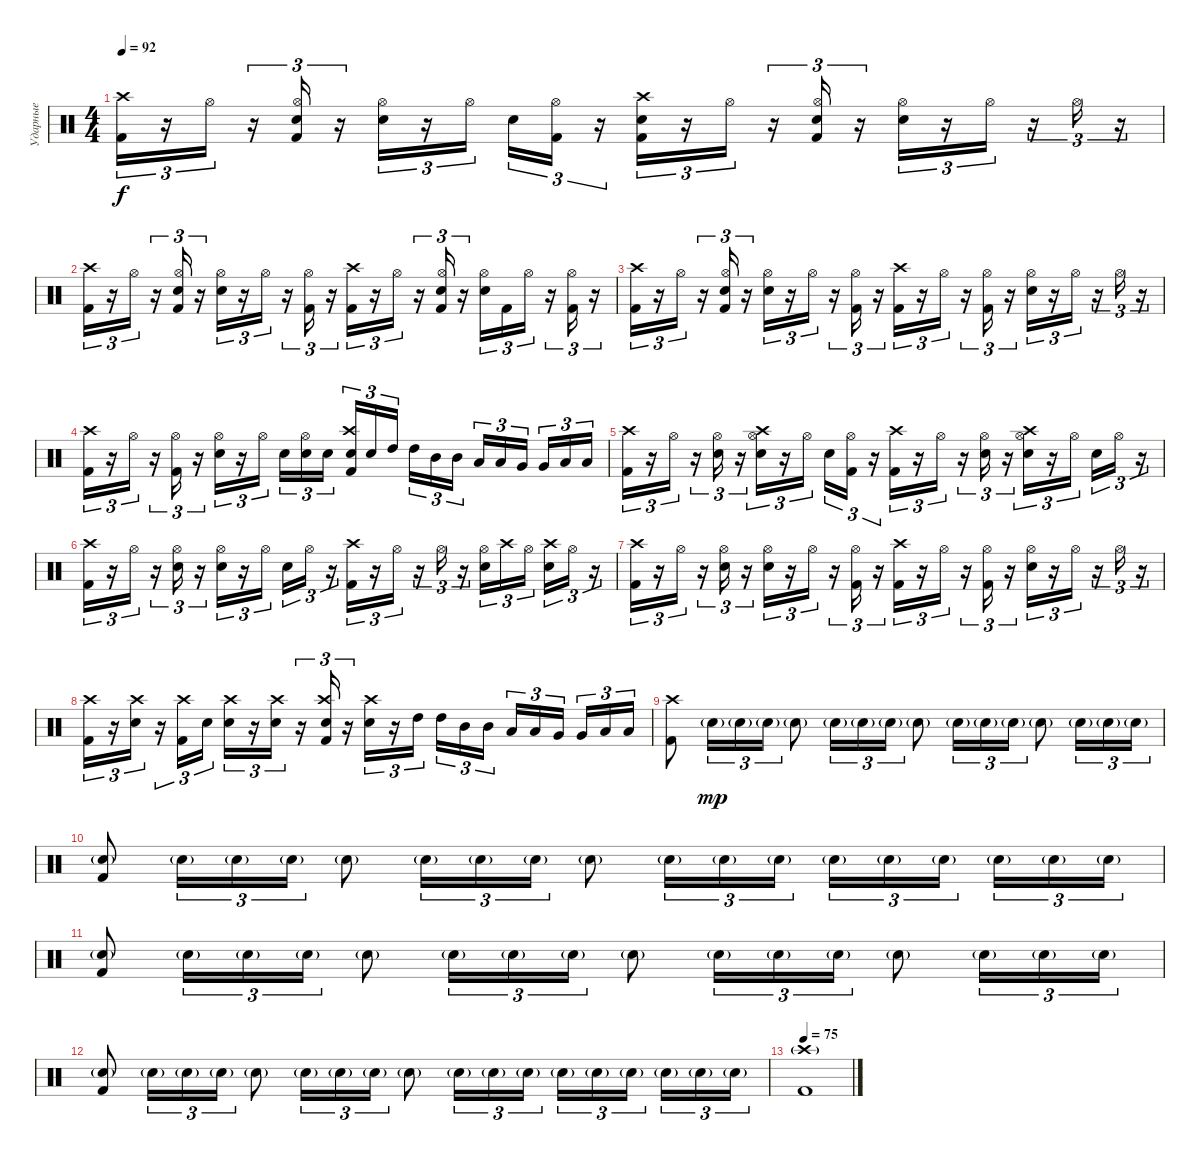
\track ("Ударные" "Ударные") {instrument percussion}
\staff {score}
\articulation defaults
\ts (4 4)
\tempo 92
\clef neutral
\ks c
("Kick (hit) 2" "Crash high (hit)").16{tu (3 2) dy f} r.16{tu (3 2)} "Hi-Hat (open)".16{tu (3 2)} r.16{tu (3 2)} ("Kick (hit) 2" "Hi-Hat (open)" "Electric Snare (hit)").16{tu (3 2)} r.16{tu (3 2)} ("Hi-Hat (open)" "Electric Snare (hit)").16{tu (3 2)} r.16{tu (3 2)} "Hi-Hat (open)".16{tu (3 2)} "Electric Snare (hit)".16{tu (3 2)} ("Kick (hit) 2" "Hi-Hat (open)").16{tu (3 2)} r.16{tu (3 2)} ("Kick (hit) 2" "Crash high (hit)" "Electric Snare (hit)").16{tu (3 2)} r.16{tu (3 2)} "Hi-Hat (open)".16{tu (3 2)} r.16{tu (3 2)} ("Kick (hit) 2" "Hi-Hat (open)" "Electric Snare (hit)").16{tu (3 2)} r.16{tu (3 2)} ("Hi-Hat (open)" "Electric Snare (hit)").16{tu (3 2)} r.16{tu (3 2)} "Hi-Hat (open)".16{tu (3 2)} r.16{tu (3 2)} "Hi-Hat (open)".16{tu (3 2)} r.16{tu (3 2)} |
("Kick (hit) 2" "Crash high (hit)").16{tu (3 2)} r.16{tu (3 2)} "Hi-Hat (open)".16{tu (3 2)} r.16{tu (3 2)} ("Kick (hit) 2" "Hi-Hat (open)" "Electric Snare (hit)").16{tu (3 2)} r.16{tu (3 2)} ("Hi-Hat (open)" "Electric Snare (hit)").16{tu (3 2)} r.16{tu (3 2)} "Hi-Hat (open)".16{tu (3 2)} r.16{tu (3 2)} ("Kick (hit) 2" "Hi-Hat (open)").16{tu (3 2)} r.16{tu (3 2)} ("Kick (hit) 2" "Crash high (hit)").16{tu (3 2)} r.16{tu (3 2)} "Hi-Hat (open)".16{tu (3 2)} r.16{tu (3 2)} ("Kick (hit) 2" "Hi-Hat (open)" "Electric Snare (hit)").16{tu (3 2)} r.16{tu (3 2)} ("Hi-Hat (open)" "Electric Snare (hit)").16{tu (3 2)} "Kick (hit) 2".16{tu (3 2)} "Hi-Hat (open)".16{tu (3 2)} r.16{tu (3 2)} ("Kick (hit) 2" "Hi-Hat (open)").16{tu (3 2)} r.16{tu (3 2)} |
("Kick (hit) 2" "Crash high (hit)").16{tu (3 2)} r.16{tu (3 2)} "Hi-Hat (open)".16{tu (3 2)} r.16{tu (3 2)} ("Kick (hit) 2" "Hi-Hat (open)" "Electric Snare (hit)").16{tu (3 2)} r.16{tu (3 2)} ("Hi-Hat (open)" "Electric Snare (hit)").16{tu (3 2)} r.16{tu (3 2)} "Hi-Hat (open)".16{tu (3 2)} r.16{tu (3 2)} ("Kick (hit) 2" "Hi-Hat (open)").16{tu (3 2)} r.16{tu (3 2)} ("Kick (hit) 2" "Crash high (hit)").16{tu (3 2)} r.16{tu (3 2)} "Hi-Hat (open)".16{tu (3 2)} r.16{tu (3 2)} ("Kick (hit) 2" "Hi-Hat (open)").16{tu (3 2)} r.16{tu (3 2)} ("Hi-Hat (open)" "Electric Snare (hit)").16{tu (3 2)} r.16{tu (3 2)} "Hi-Hat (open)".16{tu (3 2)} r.16{tu (3 2)} "Hi-Hat (open)".16{tu (3 2)} r.16{tu (3 2)} |
("Kick (hit) 2" "Crash high (hit)").16{tu (3 2)} r.16{tu (3 2)} "Hi-Hat (open)".16{tu (3 2)} r.16{tu (3 2)} ("Kick (hit) 2" "Hi-Hat (open)").16{tu (3 2)} r.16{tu (3 2)} ("Hi-Hat (open)" "Electric Snare (hit)").16{tu (3 2)} r.16{tu (3 2)} "Hi-Hat (open)".16{tu (3 2)} "Electric Snare (hit)".16{tu (3 2)} ("Hi-Hat (open)" "Electric Snare (hit)").16{tu (3 2)} "Electric Snare (hit)".16{tu (3 2)} ("Kick (hit) 2" "Crash high (hit)" "Electric Snare (hit)").16{tu (3 2)} "Electric Snare (hit)".16{tu (3 2)} "High Tom (hit)".16{tu (3 2)} "High Tom (hit)".16{tu (3 2)} "Mid Tom (hit)".16{tu (3 2)} "Mid Tom (hit)".16{tu (3 2)} "Low Tom (hit)".16{tu (3 2)} "Low Tom (hit)".16{tu (3 2)} "Very Low Tom (hit)".16{tu (3 2)} "Very Low Tom (hit)".16{tu (3 2)} "Low Floor Tom (hit)".16{tu (3 2)} "Low Floor Tom (hit)".16{tu (3 2)} |
("Kick (hit) 2" "Crash high (hit)").16{tu (3 2)} r.16{tu (3 2)} "Hi-Hat (open)".16{tu (3 2)} r.16{tu (3 2)} ("Hi-Hat (open)" "Electric Snare (hit)").16{tu (3 2)} r.16{tu (3 2)} ("Crash high (hit)" "Hi-Hat (open)" "Electric Snare (hit)").16{tu (3 2)} r.16{tu (3 2)} "Hi-Hat (open)".16{tu (3 2)} "Electric Snare (hit)".16{tu (3 2)} ("Kick (hit) 2" "Hi-Hat (open)").16{tu (3 2)} r.16{tu (3 2)} ("Kick (hit) 2" "Crash high (hit)").16{tu (3 2)} r.16{tu (3 2)} "Hi-Hat (open)".16{tu (3 2)} r.16{tu (3 2)} ("Hi-Hat (open)" "Electric Snare (hit)").16{tu (3 2)} r.16{tu (3 2)} ("Crash high (hit)" "Hi-Hat (open)" "Electric Snare (hit)").16{tu (3 2)} r.16{tu (3 2)} "Hi-Hat (open)".16{tu (3 2)} "Electric Snare (hit)".16{tu (3 2)} "Hi-Hat (open)".16{tu (3 2)} r.16{tu (3 2)} |
("Kick (hit) 2" "Crash high (hit)").16{tu (3 2)} r.16{tu (3 2)} "Hi-Hat (open)".16{tu (3 2)} r.16{tu (3 2)} ("Hi-Hat (open)" "Electric Snare (hit)").16{tu (3 2)} r.16{tu (3 2)} ("Hi-Hat (open)" "Electric Snare (hit)").16{tu (3 2)} r.16{tu (3 2)} "Hi-Hat (open)".16{tu (3 2)} "Electric Snare (hit)".16{tu (3 2)} "Hi-Hat (open)".16{tu (3 2)} r.16{tu (3 2)} ("Kick (hit) 2" "Crash high (hit)").16{tu (3 2)} r.16{tu (3 2)} "Hi-Hat (open)".16{tu (3 2)} r.16{tu (3 2)} "Hi-Hat (open)".16{tu (3 2)} r.16{tu (3 2)} ("Hi-Hat (open)" "Electric Snare (hit)").16{tu (3 2)} "Crash high (hit)".16{tu (3 2)} "Hi-Hat (open)".16{tu (3 2)} ("Crash high (hit)" "Electric Snare (hit)").16{tu (3 2)} "Hi-Hat (open)".16{tu (3 2)} r.16{tu (3 2)} |
("Kick (hit) 2" "Crash high (hit)").16{tu (3 2)} r.16{tu (3 2)} "Hi-Hat (open)".16{tu (3 2)} r.16{tu (3 2)} ("Hi-Hat (open)" "Electric Snare (hit)").16{tu (3 2)} r.16{tu (3 2)} ("Hi-Hat (open)" "Electric Snare (hit)").16{tu (3 2)} r.16{tu (3 2)} "Hi-Hat (open)".16{tu (3 2)} r.16{tu (3 2)} ("Kick (hit) 2" "Hi-Hat (open)").16{tu (3 2)} r.16{tu (3 2)} ("Kick (hit) 2" "Crash high (hit)").16{tu (3 2)} r.16{tu (3 2)} "Hi-Hat (open)".16{tu (3 2)} r.16{tu (3 2)} ("Kick (hit) 2" "Hi-Hat (open)").16{tu (3 2)} r.16{tu (3 2)} ("Hi-Hat (open)" "Electric Snare (hit)").16{tu (3 2)} r.16{tu (3 2)} "Hi-Hat (open)".16{tu (3 2)} r.16{tu (3 2)} "Hi-Hat (open)".16{tu (3 2)} r.16{tu (3 2)} |
("Kick (hit) 2" "Crash high (hit)").16{tu (3 2)} r.16{tu (3 2)} ("Crash high (hit)" "Electric Snare (hit)").16{tu (3 2)} r.16{tu (3 2)} ("Kick (hit) 2" "Crash high (hit)").16{tu (3 2)} "Electric Snare (hit)".16{tu (3 2)} ("Crash high (hit)" "Electric Snare (hit)").16{tu (3 2)} r.16{tu (3 2)} ("Crash high (hit)" "Electric Snare (hit)").16{tu (3 2)} r.16{tu (3 2)} ("Kick (hit) 2" "Crash high (hit)" "Electric Snare (hit)").16{tu (3 2)} r.16{tu (3 2)} ("Crash high (hit)" "Electric Snare (hit)").16{tu (3 2)} r.16{tu (3 2)} "High Tom (hit)".16{tu (3 2)} "High Tom (hit)".16{tu (3 2)} "Mid Tom (hit)".16{tu (3 2)} "Mid Tom (hit)".16{tu (3 2)} "Low Tom (hit)".16{tu (3 2)} "Low Tom (hit)".16{tu (3 2)} "Very Low Tom (hit)".16{tu (3 2)} "Very Low Tom (hit)".16{tu (3 2)} "Low Floor Tom (hit)".16{tu (3 2)} "Low Floor Tom (hit)".16{tu (3 2)} |
("Kick (hit) 2" "Crash high (hit)").8 "Electric Snare (hit)"{g}.16{tu (3 2) dy mp} "Electric Snare (hit)"{g}.16{tu (3 2)} "Electric Snare (hit)"{g}.16{tu (3 2)} "Electric Snare (hit)"{g}.8 "Electric Snare (hit)"{g}.16{tu (3 2)} "Electric Snare (hit)"{g}.16{tu (3 2)} "Electric Snare (hit)"{g}.16{tu (3 2)} "Electric Snare (hit)"{g}.8 "Electric Snare (hit)"{g}.16{tu (3 2)} "Electric Snare (hit)"{g}.16{tu (3 2)} "Electric Snare (hit)"{g}.16{tu (3 2)} "Electric Snare (hit)"{g}.8 "Electric Snare (hit)"{g}.16{tu (3 2)} "Electric Snare (hit)"{g}.16{tu (3 2)} "Electric Snare (hit)"{g}.16{tu (3 2)} |
("Electric Snare (hit)"{g} "Kick (hit) 2").8 "Electric Snare (hit)"{g}.16{tu (3 2)} "Electric Snare (hit)"{g}.16{tu (3 2)} "Electric Snare (hit)"{g}.16{tu (3 2)} "Electric Snare (hit)"{g}.8 "Electric Snare (hit)"{g}.16{tu (3 2)} "Electric Snare (hit)"{g}.16{tu (3 2)} "Electric Snare (hit)"{g}.16{tu (3 2)} "Electric Snare (hit)"{g}.8 "Electric Snare (hit)"{g}.16{tu (3 2)} "Electric Snare (hit)"{g}.16{tu (3 2)} "Electric Snare (hit)"{g}.16{tu (3 2)} "Electric Snare (hit)"{g}.16{tu (3 2)} "Electric Snare (hit)"{g}.16{tu (3 2)} "Electric Snare (hit)"{g}.16{tu (3 2)} "Electric Snare (hit)"{g}.16{tu (3 2)} "Electric Snare (hit)"{g}.16{tu (3 2)} "Electric Snare (hit)"{g}.16{tu (3 2)} |
("Electric Snare (hit)"{g} "Kick (hit) 2").8 "Electric Snare (hit)"{g}.16{tu (3 2)} "Electric Snare (hit)"{g}.16{tu (3 2)} "Electric Snare (hit)"{g}.16{tu (3 2)} "Electric Snare (hit)"{g}.8 "Electric Snare (hit)"{g}.16{tu (3 2)} "Electric Snare (hit)"{g}.16{tu (3 2)} "Electric Snare (hit)"{g}.16{tu (3 2)} "Electric Snare (hit)"{g}.8 "Electric Snare (hit)"{g}.16{tu (3 2)} "Electric Snare (hit)"{g}.16{tu (3 2)} "Electric Snare (hit)"{g}.16{tu (3 2)} "Electric Snare (hit)"{g}.8 "Electric Snare (hit)"{g}.16{tu (3 2)} "Electric Snare (hit)"{g}.16{tu (3 2)} "Electric Snare (hit)"{g}.16{tu (3 2)} |
("Electric Snare (hit)"{g} "Kick (hit) 2").8 "Electric Snare (hit)"{g}.16{tu (3 2)} "Electric Snare (hit)"{g}.16{tu (3 2)} "Electric Snare (hit)"{g}.16{tu (3 2)} "Electric Snare (hit)"{g}.8 "Electric Snare (hit)"{g}.16{tu (3 2)} "Electric Snare (hit)"{g}.16{tu (3 2)} "Electric Snare (hit)"{g}.16{tu (3 2)} "Electric Snare (hit)"{g}.8 "Electric Snare (hit)"{g}.16{tu (3 2)} "Electric Snare (hit)"{g}.16{tu (3 2)} "Electric Snare (hit)"{g}.16{tu (3 2)} "Electric Snare (hit)"{g}.16{tu (3 2)} "Electric Snare (hit)"{g}.16{tu (3 2)} "Electric Snare (hit)"{g}.16{tu (3 2)} "Electric Snare (hit)"{g}.16{tu (3 2)} "Electric Snare (hit)"{g}.16{tu (3 2)} "Electric Snare (hit)"{g}.16{tu (3 2)} |
\tempo 75
("Kick (hit) 2" "Crash high (hit)"{g}).1
